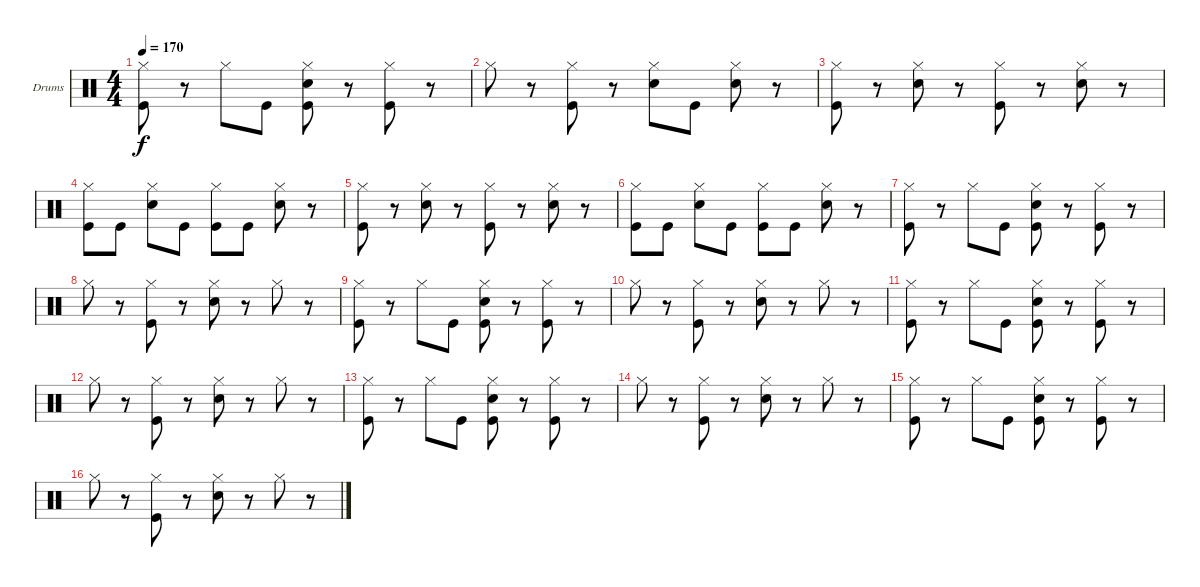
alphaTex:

\bracketExtendMode groupsimilarinstruments
\firstSystemTrackNameOrientation horizontal
\otherSystemsTrackNameOrientation horizontal
\track ("Drumkit" "Drums") {instrument percussion}
\staff {score}
\articulation defaults
\ts (4 4)
\tempo 170
\clef neutral
\ks c
("Hi-Hat (closed)" "Kick (hit)").8{dy f} r.8 "Hi-Hat (closed)".8 "Kick (hit)".8 ("Hi-Hat (closed)" "Snare (hit) 2" "Kick (hit)").8 r.8 ("Hi-Hat (closed)" "Kick (hit)").8 r.8 |
"Hi-Hat (closed)".8 r.8 ("Hi-Hat (closed)" "Kick (hit)").8 r.8 ("Hi-Hat (closed)" "Snare (hit) 2").8 "Kick (hit)".8 ("Hi-Hat (closed)" "Snare (hit) 2").8 r.8 |
("Hi-Hat (closed)" "Kick (hit)").8 r.8 ("Hi-Hat (closed)" "Snare (hit) 2").8 r.8 ("Hi-Hat (closed)" "Kick (hit)").8 r.8 ("Hi-Hat (closed)" "Snare (hit) 2").8 r.8 |
("Hi-Hat (closed)" "Kick (hit)").8 "Kick (hit)".8 ("Hi-Hat (closed)" "Snare (hit) 2").8 "Kick (hit)".8 ("Hi-Hat (closed)" "Kick (hit)").8 "Kick (hit)".8 ("Hi-Hat (closed)" "Snare (hit) 2").8 r.8 |
("Hi-Hat (closed)" "Kick (hit)").8 r.8 ("Hi-Hat (closed)" "Snare (hit) 2").8 r.8 ("Hi-Hat (closed)" "Kick (hit)").8 r.8 ("Hi-Hat (closed)" "Snare (hit) 2").8 r.8 |
("Hi-Hat (closed)" "Kick (hit)").8 "Kick (hit)".8 ("Hi-Hat (closed)" "Snare (hit) 2").8 "Kick (hit)".8 ("Hi-Hat (closed)" "Kick (hit)").8 "Kick (hit)".8 ("Hi-Hat (closed)" "Snare (hit) 2").8 r.8 |
("Hi-Hat (closed)" "Kick (hit)").8 r.8 "Hi-Hat (closed)".8 "Kick (hit)".8 ("Hi-Hat (closed)" "Snare (hit) 2" "Kick (hit)").8 r.8 ("Hi-Hat (closed)" "Kick (hit)").8 r.8 |
"Hi-Hat (closed)".8 r.8 ("Hi-Hat (closed)" "Kick (hit)").8 r.8 ("Hi-Hat (closed)" "Snare (hit) 2").8 r.8 "Hi-Hat (closed)".8 r.8 |
("Hi-Hat (closed)" "Kick (hit)").8 r.8 "Hi-Hat (closed)".8 "Kick (hit)".8 ("Hi-Hat (closed)" "Snare (hit) 2" "Kick (hit)").8 r.8 ("Hi-Hat (closed)" "Kick (hit)").8 r.8 |
"Hi-Hat (closed)".8 r.8 ("Hi-Hat (closed)" "Kick (hit)").8 r.8 ("Hi-Hat (closed)" "Snare (hit) 2").8 r.8 "Hi-Hat (closed)".8 r.8 |
("Hi-Hat (closed)" "Kick (hit)").8 r.8 "Hi-Hat (closed)".8 "Kick (hit)".8 ("Hi-Hat (closed)" "Snare (hit) 2" "Kick (hit)").8 r.8 ("Hi-Hat (closed)" "Kick (hit)").8 r.8 |
"Hi-Hat (closed)".8 r.8 ("Hi-Hat (closed)" "Kick (hit)").8 r.8 ("Hi-Hat (closed)" "Snare (hit) 2").8 r.8 "Hi-Hat (closed)".8 r.8 |
("Hi-Hat (closed)" "Kick (hit)").8 r.8 "Hi-Hat (closed)".8 "Kick (hit)".8 ("Hi-Hat (closed)" "Snare (hit) 2" "Kick (hit)").8 r.8 ("Hi-Hat (closed)" "Kick (hit)").8 r.8 |
"Hi-Hat (closed)".8 r.8 ("Hi-Hat (closed)" "Kick (hit)").8 r.8 ("Hi-Hat (closed)" "Snare (hit) 2").8 r.8 "Hi-Hat (closed)".8 r.8 |
("Hi-Hat (closed)" "Kick (hit)").8 r.8 "Hi-Hat (closed)".8 "Kick (hit)".8 ("Hi-Hat (closed)" "Snare (hit) 2" "Kick (hit)").8 r.8 ("Hi-Hat (closed)" "Kick (hit)").8 r.8 |
"Hi-Hat (closed)".8 r.8 ("Hi-Hat (closed)" "Kick (hit)").8 r.8 ("Hi-Hat (closed)" "Snare (hit) 2").8 r.8 "Hi-Hat (closed)".8 r.8
